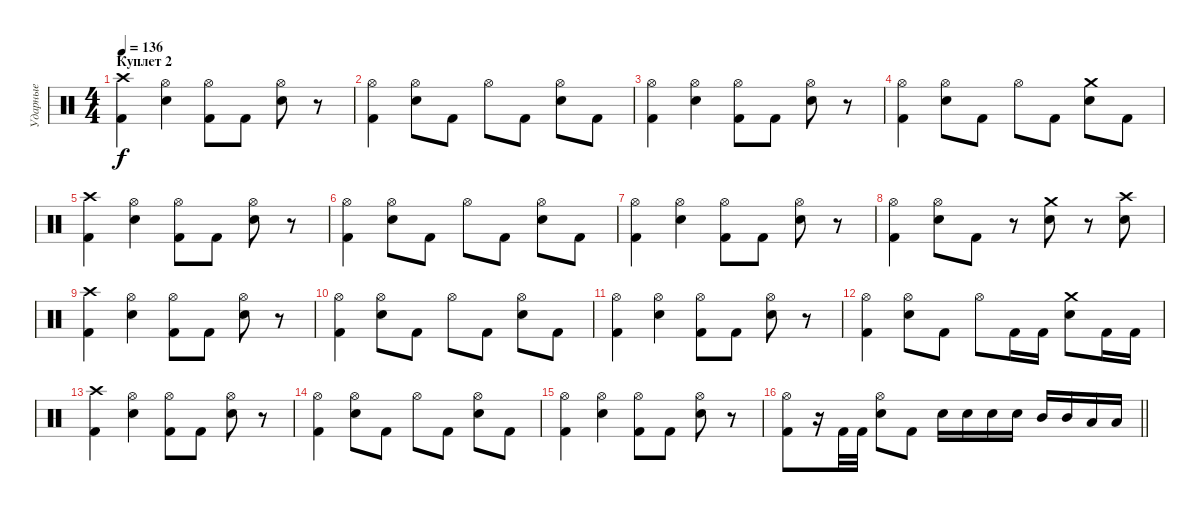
\track ("Ударные" "Ударные") {instrument percussion}
\staff {score}
\articulation defaults
\ts (4 4)
\section ("" "Куплет 2")
\tempo 136
\clef neutral
\ks c
("Crash high (hit)" "Kick (hit) 2").4{dy f} ("Hi-Hat (open)" "Snare (hit) 2").4 ("Hi-Hat (open)" "Kick (hit) 2").8 "Kick (hit) 2".8 ("Hi-Hat (open)" "Snare (hit) 2").8 r.8 |
("Hi-Hat (open)" "Kick (hit) 2").4 ("Hi-Hat (open)" "Snare (hit) 2").8 "Kick (hit) 2".8 "Hi-Hat (open)".8 "Kick (hit) 2".8 ("Hi-Hat (open)" "Snare (hit) 2").8 "Kick (hit) 2".8 |
("Hi-Hat (open)" "Kick (hit) 2").4 ("Hi-Hat (open)" "Snare (hit) 2").4 ("Hi-Hat (open)" "Kick (hit) 2").8 "Kick (hit) 2".8 ("Hi-Hat (open)" "Snare (hit) 2").8 r.8 |
("Hi-Hat (open)" "Kick (hit) 2").4 ("Hi-Hat (open)" "Snare (hit) 2").8 "Kick (hit) 2".8 "Hi-Hat (open)".8 "Kick (hit) 2".8 ("Crash medium (hit)" "Snare (hit) 2").8 "Kick (hit) 2".8 |
("Crash high (hit)" "Kick (hit) 2").4 ("Hi-Hat (open)" "Snare (hit) 2").4 ("Hi-Hat (open)" "Kick (hit) 2").8 "Kick (hit) 2".8 ("Hi-Hat (open)" "Snare (hit) 2").8 r.8 |
("Hi-Hat (open)" "Kick (hit) 2").4 ("Hi-Hat (open)" "Snare (hit) 2").8 "Kick (hit) 2".8 "Hi-Hat (open)".8 "Kick (hit) 2".8 ("Hi-Hat (open)" "Snare (hit) 2").8 "Kick (hit) 2".8 |
("Hi-Hat (open)" "Kick (hit) 2").4 ("Hi-Hat (open)" "Snare (hit) 2").4 ("Hi-Hat (open)" "Kick (hit) 2").8 "Kick (hit) 2".8 ("Hi-Hat (open)" "Snare (hit) 2").8 r.8 |
("Hi-Hat (open)" "Kick (hit) 2").4 ("Hi-Hat (open)" "Snare (hit) 2").8 "Kick (hit) 2".8 r.8 ("Crash medium (hit)" "Snare (hit) 2").8 r.8 ("Crash high (hit)" "Snare (hit) 2").8 |
("Crash high (hit)" "Kick (hit) 2").4 ("Hi-Hat (open)" "Snare (hit) 2").4 ("Hi-Hat (open)" "Kick (hit) 2").8 "Kick (hit) 2".8 ("Hi-Hat (open)" "Snare (hit) 2").8 r.8 |
("Hi-Hat (open)" "Kick (hit) 2").4 ("Hi-Hat (open)" "Snare (hit) 2").8 "Kick (hit) 2".8 "Hi-Hat (open)".8 "Kick (hit) 2".8 ("Hi-Hat (open)" "Snare (hit) 2").8 "Kick (hit) 2".8 |
("Hi-Hat (open)" "Kick (hit) 2").4 ("Hi-Hat (open)" "Snare (hit) 2").4 ("Hi-Hat (open)" "Kick (hit) 2").8 "Kick (hit) 2".8 ("Hi-Hat (open)" "Snare (hit) 2").8 r.8 |
("Hi-Hat (open)" "Kick (hit) 2").4 ("Hi-Hat (open)" "Snare (hit) 2").8 "Kick (hit) 2".8 "Hi-Hat (open)".8 "Kick (hit) 2".16 "Kick (hit) 2".16 ("Crash medium (hit)" "Snare (hit) 2").8 "Kick (hit) 2".16 "Kick (hit) 2".16 |
("Crash high (hit)" "Kick (hit) 2").4 ("Hi-Hat (open)" "Snare (hit) 2").4 ("Hi-Hat (open)" "Kick (hit) 2").8 "Kick (hit) 2".8 ("Hi-Hat (open)" "Snare (hit) 2").8 r.8 |
("Hi-Hat (open)" "Kick (hit) 2").4 ("Hi-Hat (open)" "Snare (hit) 2").8 "Kick (hit) 2".8 "Hi-Hat (open)".8 "Kick (hit) 2".8 ("Hi-Hat (open)" "Snare (hit) 2").8 "Kick (hit) 2".8 |
("Hi-Hat (open)" "Kick (hit) 2").4 ("Hi-Hat (open)" "Snare (hit) 2").4 ("Hi-Hat (open)" "Kick (hit) 2").8 "Kick (hit) 2".8 ("Hi-Hat (open)" "Snare (hit) 2").8 r.8 |
\barLineRight lightlight
("Hi-Hat (open)" "Kick (hit) 2").8 r.16 "Kick (hit) 2".32 "Kick (hit) 2".32 ("Hi-Hat (open)" "Snare (hit) 2").8 "Kick (hit) 2".8 "Snare (hit) 2".16 "Snare (hit) 2".16 "Snare (hit) 2".16 "Snare (hit) 2".16 "Mid Tom (hit)".16 "Mid Tom (hit)".16 "Low Tom (hit)".16 "Low Tom (hit)".16
